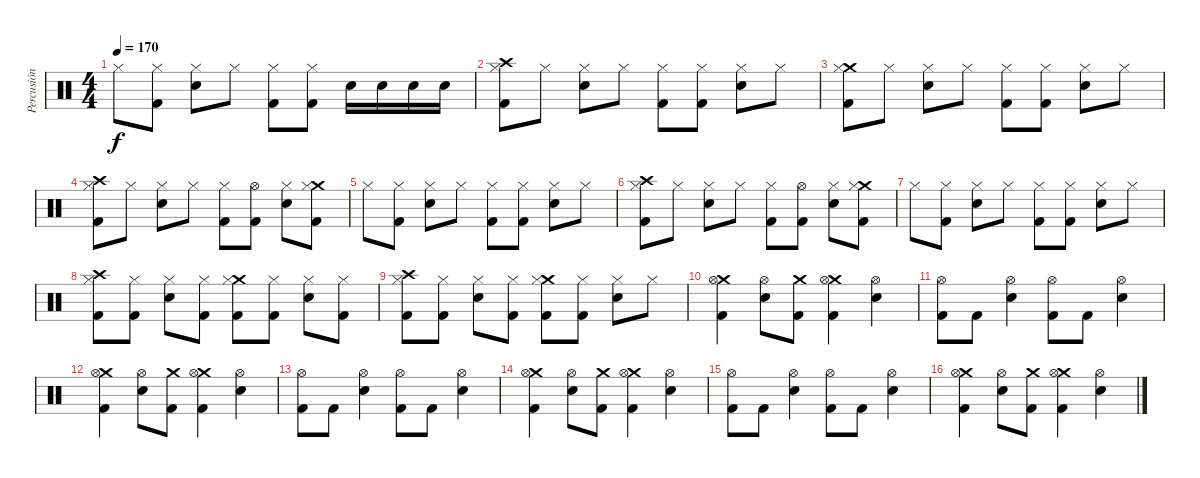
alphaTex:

\track ("Percusión" "Percusión") {instrument percussion}
\staff {score}
\articulation defaults
\ts (4 4)
\tempo 170
\clef neutral
\ks c "Hi-Hat (closed)".8{dy f}
("Hi-Hat (closed)" "Kick (hit) 2").8 ("Hi-Hat (closed)" "Electric Snare (hit)").8 "Hi-Hat (closed)".8 ("Hi-Hat (closed)" "Kick (hit) 2").8 ("Hi-Hat (closed)" "Kick (hit) 2").8 "Electric Snare (hit)".16 "Electric Snare (hit)".16 "Electric Snare (hit)".16 "Electric Snare (hit)".16 |
("Crash high (hit)" "Hi-Hat (closed)" "Kick (hit) 2").8 "Hi-Hat (closed)".8 ("Hi-Hat (closed)" "Electric Snare (hit)").8 "Hi-Hat (closed)".8 ("Hi-Hat (closed)" "Kick (hit) 2").8 ("Hi-Hat (closed)" "Kick (hit) 2").8 ("Hi-Hat (closed)" "Electric Snare (hit)").8 "Hi-Hat (closed)".8 |
("Crash medium (hit)" "Hi-Hat (closed)" "Kick (hit) 2").8 "Hi-Hat (closed)".8 ("Hi-Hat (closed)" "Electric Snare (hit)").8 "Hi-Hat (closed)".8 ("Hi-Hat (closed)" "Kick (hit) 2").8 ("Hi-Hat (closed)" "Kick (hit) 2").8 ("Hi-Hat (closed)" "Electric Snare (hit)").8 "Hi-Hat (closed)".8 |
("Crash high (hit)" "Hi-Hat (closed)" "Kick (hit) 2").8 "Hi-Hat (closed)".8 ("Hi-Hat (closed)" "Electric Snare (hit)").8 "Hi-Hat (closed)".8 ("Hi-Hat (closed)" "Kick (hit) 2").8 ("Hi-Hat (open)" "Kick (hit) 2").8 ("Hi-Hat (closed)" "Electric Snare (hit)").8 ("Crash medium (hit)" "Hi-Hat (closed)" "Kick (hit) 2").8 |
"Hi-Hat (closed)".8 ("Hi-Hat (closed)" "Kick (hit) 2").8 ("Hi-Hat (closed)" "Electric Snare (hit)").8 "Hi-Hat (closed)".8 ("Hi-Hat (closed)" "Kick (hit) 2").8 ("Hi-Hat (closed)" "Kick (hit) 2").8 ("Hi-Hat (closed)" "Electric Snare (hit)").8 "Hi-Hat (closed)".8 |
("Crash high (hit)" "Hi-Hat (closed)" "Kick (hit) 2").8 "Hi-Hat (closed)".8 ("Hi-Hat (closed)" "Electric Snare (hit)").8 "Hi-Hat (closed)".8 ("Hi-Hat (closed)" "Kick (hit) 2").8 ("Hi-Hat (open)" "Kick (hit) 2").8 ("Hi-Hat (closed)" "Electric Snare (hit)").8 ("Crash medium (hit)" "Hi-Hat (closed)" "Kick (hit) 2").8 |
"Hi-Hat (closed)".8 ("Hi-Hat (closed)" "Kick (hit) 2").8 ("Hi-Hat (closed)" "Electric Snare (hit)").8 "Hi-Hat (closed)".8 ("Hi-Hat (closed)" "Kick (hit) 2").8 ("Hi-Hat (closed)" "Kick (hit) 2").8 ("Hi-Hat (closed)" "Electric Snare (hit)").8 "Hi-Hat (closed)".8 |
("Crash high (hit)" "Hi-Hat (closed)" "Kick (hit) 2").8 ("Hi-Hat (closed)" "Kick (hit) 2").8 ("Hi-Hat (closed)" "Electric Snare (hit)").8 ("Hi-Hat (closed)" "Kick (hit) 2").8 ("Crash medium (hit)" "Hi-Hat (closed)" "Kick (hit) 2").8 ("Hi-Hat (closed)" "Kick (hit) 2").8 ("Hi-Hat (closed)" "Electric Snare (hit)").8 ("Hi-Hat (closed)" "Kick (hit) 2").8 |
("Crash high (hit)" "Hi-Hat (closed)" "Kick (hit) 2").8 ("Hi-Hat (closed)" "Kick (hit) 2").8 ("Hi-Hat (closed)" "Electric Snare (hit)").8 ("Hi-Hat (closed)" "Kick (hit) 2").8 ("Crash medium (hit)" "Hi-Hat (closed)" "Kick (hit) 2").8 ("Hi-Hat (closed)" "Kick (hit) 2").8 ("Hi-Hat (closed)" "Electric Snare (hit)").8 "Hi-Hat (closed)".8 |
("Crash medium (hit)" "Hi-Hat (open)" "Kick (hit) 2").4 ("Hi-Hat (open)" "Electric Snare (hit)").8 ("Crash medium (hit)" "Kick (hit) 2").8 ("Crash medium (hit)" "Hi-Hat (open)" "Kick (hit) 2").4 ("Hi-Hat (open)" "Electric Snare (hit)").4 |
("Hi-Hat (open)" "Kick (hit) 2").8 "Kick (hit) 2".8 ("Hi-Hat (open)" "Electric Snare (hit)").4 ("Hi-Hat (open)" "Kick (hit) 2").8 "Kick (hit) 2".8 ("Hi-Hat (open)" "Electric Snare (hit)").4 |
("Crash medium (hit)" "Hi-Hat (open)" "Kick (hit) 2").4 ("Hi-Hat (open)" "Electric Snare (hit)").8 ("Crash medium (hit)" "Kick (hit) 2").8 ("Crash medium (hit)" "Hi-Hat (open)" "Kick (hit) 2").4 ("Hi-Hat (open)" "Electric Snare (hit)").4 |
("Hi-Hat (open)" "Kick (hit) 2").8 "Kick (hit) 2".8 ("Hi-Hat (open)" "Electric Snare (hit)").4 ("Hi-Hat (open)" "Kick (hit) 2").8 "Kick (hit) 2".8 ("Hi-Hat (open)" "Electric Snare (hit)").4 |
("Crash medium (hit)" "Hi-Hat (open)" "Kick (hit) 2").4 ("Hi-Hat (open)" "Electric Snare (hit)").8 ("Crash medium (hit)" "Kick (hit) 2").8 ("Crash medium (hit)" "Hi-Hat (open)" "Kick (hit) 2").4 ("Hi-Hat (open)" "Electric Snare (hit)").4 |
("Hi-Hat (open)" "Kick (hit) 2").8 "Kick (hit) 2".8 ("Hi-Hat (open)" "Electric Snare (hit)").4 ("Hi-Hat (open)" "Kick (hit) 2").8 "Kick (hit) 2".8 ("Hi-Hat (open)" "Electric Snare (hit)").4 |
("Crash medium (hit)" "Hi-Hat (open)" "Kick (hit) 2").4 ("Hi-Hat (open)" "Electric Snare (hit)").8 ("Crash medium (hit)" "Kick (hit) 2").8 ("Crash medium (hit)" "Hi-Hat (open)" "Kick (hit) 2").4 ("Hi-Hat (open)" "Electric Snare (hit)").4
